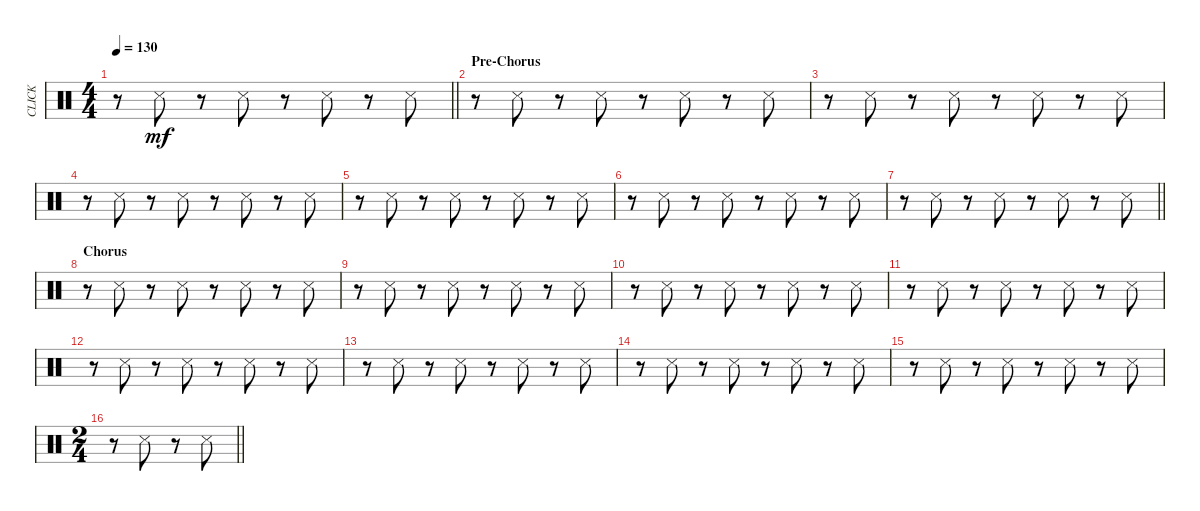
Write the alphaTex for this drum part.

\track ("CLICK" "CLICK") {instrument percussion}
\staff {score}
\articulation defaults
\ts (4 4)
\tempo 130
\clef neutral
\barLineRight lightlight
\ks c
r.8{dy mf} "Snare (side stick) 3".8 r.8 "Snare (side stick) 3".8 r.8 "Snare (side stick) 3".8 r.8 "Snare (side stick) 3".8 |
\section ("" "Pre-Chorus")
r.8 "Snare (side stick) 3".8 r.8 "Snare (side stick) 3".8 r.8 "Snare (side stick) 3".8 r.8 "Snare (side stick) 3".8 |
r.8 "Snare (side stick) 3".8 r.8 "Snare (side stick) 3".8 r.8 "Snare (side stick) 3".8 r.8 "Snare (side stick) 3".8 |
r.8 "Snare (side stick) 3".8 r.8 "Snare (side stick) 3".8 r.8 "Snare (side stick) 3".8 r.8 "Snare (side stick) 3".8 |
r.8 "Snare (side stick) 3".8 r.8 "Snare (side stick) 3".8 r.8 "Snare (side stick) 3".8 r.8 "Snare (side stick) 3".8 |
r.8 "Snare (side stick) 3".8 r.8 "Snare (side stick) 3".8 r.8 "Snare (side stick) 3".8 r.8 "Snare (side stick) 3".8 |
\barLineRight lightlight
r.8 "Snare (side stick) 3".8 r.8 "Snare (side stick) 3".8 r.8 "Snare (side stick) 3".8 r.8 "Snare (side stick) 3".8 |
\section ("" "Chorus")
r.8 "Snare (side stick) 3".8 r.8 "Snare (side stick) 3".8 r.8 "Snare (side stick) 3".8 r.8 "Snare (side stick) 3".8 |
r.8 "Snare (side stick) 3".8 r.8 "Snare (side stick) 3".8 r.8 "Snare (side stick) 3".8 r.8 "Snare (side stick) 3".8 |
r.8 "Snare (side stick) 3".8 r.8 "Snare (side stick) 3".8 r.8 "Snare (side stick) 3".8 r.8 "Snare (side stick) 3".8 |
r.8 "Snare (side stick) 3".8 r.8 "Snare (side stick) 3".8 r.8 "Snare (side stick) 3".8 r.8 "Snare (side stick) 3".8 |
r.8 "Snare (side stick) 3".8 r.8 "Snare (side stick) 3".8 r.8 "Snare (side stick) 3".8 r.8 "Snare (side stick) 3".8 |
r.8 "Snare (side stick) 3".8 r.8 "Snare (side stick) 3".8 r.8 "Snare (side stick) 3".8 r.8 "Snare (side stick) 3".8 |
r.8 "Snare (side stick) 3".8 r.8 "Snare (side stick) 3".8 r.8 "Snare (side stick) 3".8 r.8 "Snare (side stick) 3".8 |
r.8 "Snare (side stick) 3".8 r.8 "Snare (side stick) 3".8 r.8 "Snare (side stick) 3".8 r.8 "Snare (side stick) 3".8 |
\ts (2 4)
\barLineRight lightlight
r.8 "Snare (side stick) 3".8 r.8 "Snare (side stick) 3".8
